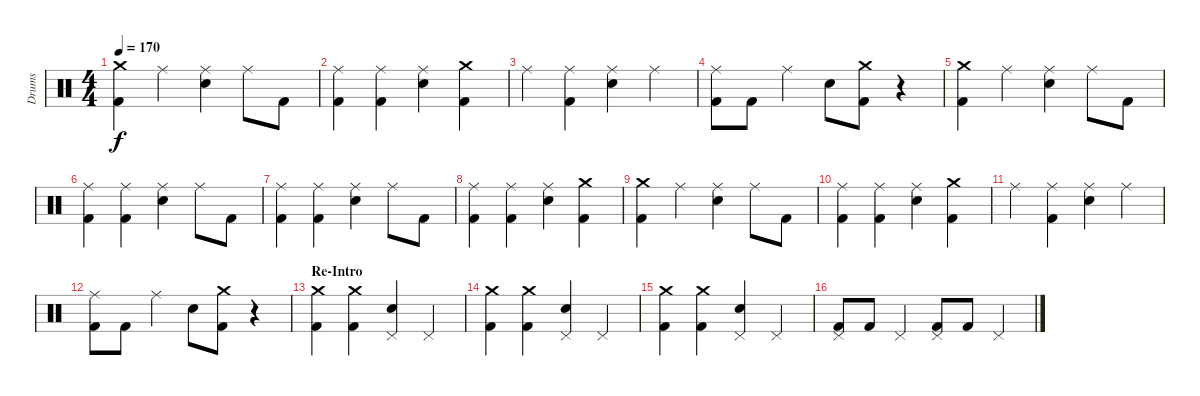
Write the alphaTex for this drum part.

\track ("Drums" "Drums") {instrument percussion}
\staff {score}
\articulation defaults
\ts (4 4)
\tempo 170
\clef neutral
\ks c
("Crash medium (hit)" "Kick (hit) 2").4{dy f} "Ride (middle)".4 ("Ride (middle)" "Electric Snare (hit)").4 "Ride (middle)".8 "Kick (hit) 2".8 |
("Ride (middle)" "Kick (hit) 2").4 ("Ride (middle)" "Kick (hit) 2").4 ("Ride (middle)" "Electric Snare (hit)").4 ("Crash medium (hit)" "Kick (hit) 2").4 |
"Ride (middle)".4 ("Ride (middle)" "Kick (hit) 2").4 ("Ride (middle)" "Electric Snare (hit)").4 "Ride (middle)".4 |
("Ride (middle)" "Kick (hit) 2").8 "Kick (hit) 2".8 "Ride (middle)".4 "Electric Snare (hit)".8 ("Crash medium (hit)" "Kick (hit) 2").8 r.4 |
("Crash medium (hit)" "Kick (hit) 2").4 "Ride (middle)".4 ("Ride (middle)" "Electric Snare (hit)").4 "Ride (middle)".8 "Kick (hit) 2".8 |
("Ride (middle)" "Kick (hit) 2").4 ("Ride (middle)" "Kick (hit) 2").4 ("Ride (middle)" "Electric Snare (hit)").4 "Ride (middle)".8 "Kick (hit) 2".8 |
("Ride (middle)" "Kick (hit) 2").4 ("Ride (middle)" "Kick (hit) 2").4 ("Ride (middle)" "Electric Snare (hit)").4 "Ride (middle)".8 "Kick (hit) 2".8 |
("Ride (middle)" "Kick (hit) 2").4 ("Ride (middle)" "Kick (hit) 2").4 ("Ride (middle)" "Electric Snare (hit)").4 ("Crash medium (hit)" "Kick (hit) 2").4 |
("Crash medium (hit)" "Kick (hit) 2").4 "Ride (middle)".4 ("Ride (middle)" "Electric Snare (hit)").4 "Ride (middle)".8 "Kick (hit) 2".8 |
("Ride (middle)" "Kick (hit) 2").4 ("Ride (middle)" "Kick (hit) 2").4 ("Ride (middle)" "Electric Snare (hit)").4 ("Crash medium (hit)" "Kick (hit) 2").4 |
"Ride (middle)".4 ("Ride (middle)" "Kick (hit) 2").4 ("Ride (middle)" "Electric Snare (hit)").4 "Ride (middle)".4 |
("Ride (middle)" "Kick (hit) 2").8 "Kick (hit) 2".8 "Ride (middle)".4 "Electric Snare (hit)".8 ("Crash medium (hit)" "Kick (hit) 2").8 r.4 |
\section ("" "Re-Intro")
("Crash medium (hit)" "Kick (hit) 2").4 ("Crash medium (hit)" "Kick (hit) 2").4 ("Pedal Hi-Hat (hit)" "Electric Snare (hit)").4 "Pedal Hi-Hat (hit)".4 |
("Crash medium (hit)" "Kick (hit) 2").4 ("Crash medium (hit)" "Kick (hit) 2").4 ("Pedal Hi-Hat (hit)" "Electric Snare (hit)").4 "Pedal Hi-Hat (hit)".4 |
("Crash medium (hit)" "Kick (hit) 2").4 ("Crash medium (hit)" "Kick (hit) 2").4 ("Pedal Hi-Hat (hit)" "Electric Snare (hit)").4 "Pedal Hi-Hat (hit)".4 |
("Pedal Hi-Hat (hit)" "Kick (hit) 2").8 "Kick (hit) 2".8 "Pedal Hi-Hat (hit)".4 ("Pedal Hi-Hat (hit)" "Kick (hit) 2").8 "Kick (hit) 2".8 "Pedal Hi-Hat (hit)".4
